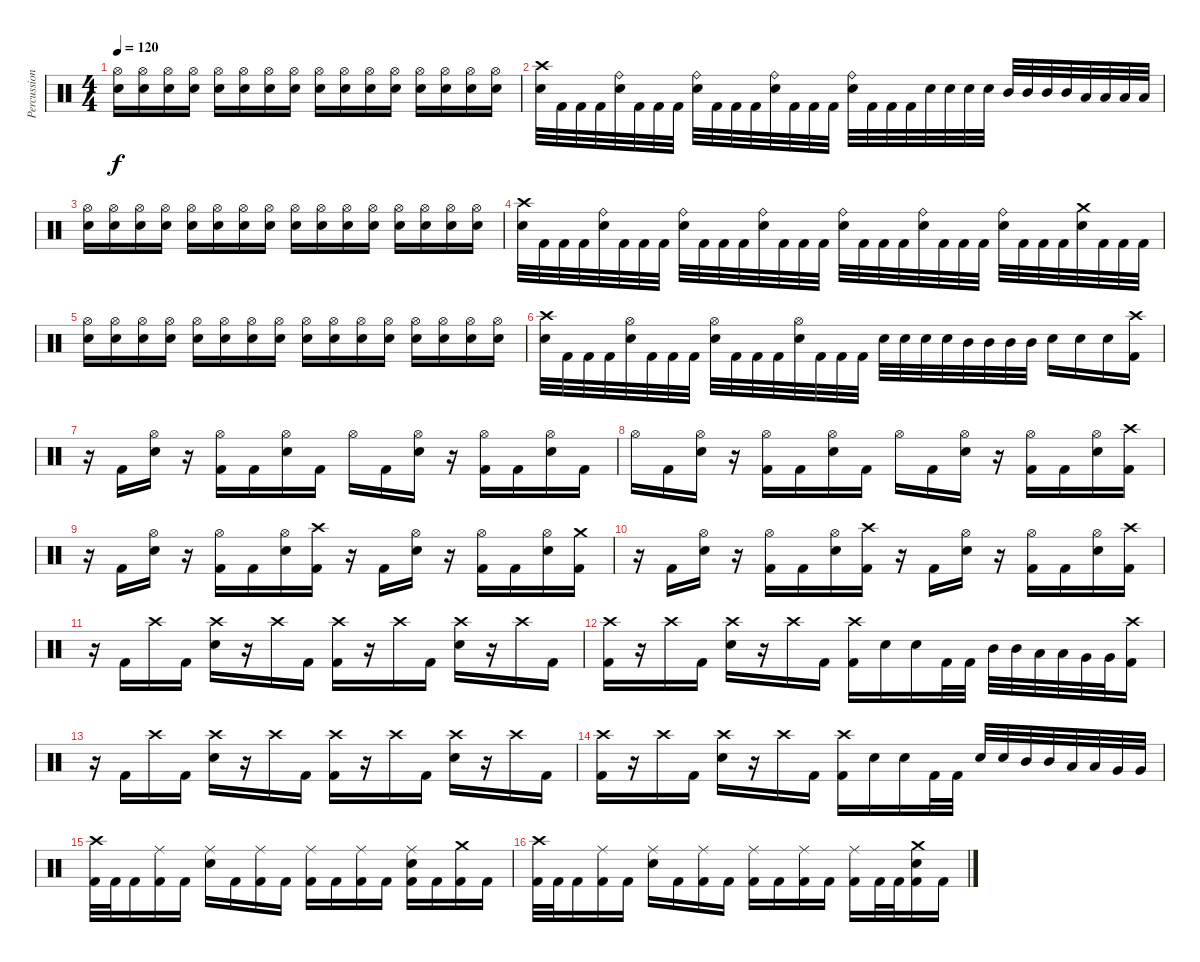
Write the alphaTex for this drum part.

\track ("Percussion" "Percussion") {instrument percussion}
\staff {score}
\articulation defaults
\ts (4 4)
\tempo 120
\clef neutral
\ks c
("Hi-Hat (open)" "Electric Snare (hit)").16{dy f} ("Hi-Hat (open)" "Electric Snare (hit)").16 ("Hi-Hat (open)" "Electric Snare (hit)").16 ("Hi-Hat (open)" "Electric Snare (hit)").16 ("Hi-Hat (open)" "Electric Snare (hit)").16 ("Hi-Hat (open)" "Electric Snare (hit)").16 ("Hi-Hat (open)" "Electric Snare (hit)").16 ("Hi-Hat (open)" "Electric Snare (hit)").16 ("Hi-Hat (open)" "Electric Snare (hit)").16 ("Hi-Hat (open)" "Electric Snare (hit)").16 ("Hi-Hat (open)" "Electric Snare (hit)").16 ("Hi-Hat (open)" "Electric Snare (hit)").16 ("Hi-Hat (open)" "Electric Snare (hit)").16 ("Hi-Hat (open)" "Electric Snare (hit)").16 ("Hi-Hat (open)" "Electric Snare (hit)").16 ("Hi-Hat (open)" "Electric Snare (hit)").16 |
("Crash high (hit)" "Electric Snare (hit)").32 "Kick (hit) 2".32 "Kick (hit) 2".32 "Kick (hit) 2".32 ("Ride (bell)" "Electric Snare (hit)").32 "Kick (hit) 2".32 "Kick (hit) 2".32 "Kick (hit) 2".32 ("Ride (bell)" "Electric Snare (hit)").32 "Kick (hit) 2".32 "Kick (hit) 2".32 "Kick (hit) 2".32 ("Ride (bell)" "Electric Snare (hit)").32 "Kick (hit) 2".32 "Kick (hit) 2".32 "Kick (hit) 2".32 ("Ride (bell)" "Electric Snare (hit)").32 "Kick (hit) 2".32 "Kick (hit) 2".32 "Kick (hit) 2".32 "Electric Snare (hit)".32 "Electric Snare (hit)".32 "Electric Snare (hit)".32 "Electric Snare (hit)".32 "Mid Tom (hit)".32 "Mid Tom (hit)".32 "Mid Tom (hit)".32 "Mid Tom (hit)".32 "Low Tom (hit)".32 "Low Tom (hit)".32 "Low Tom (hit)".32 "Low Tom (hit)".32 |
("Hi-Hat (open)" "Electric Snare (hit)").16 ("Hi-Hat (open)" "Electric Snare (hit)").16 ("Hi-Hat (open)" "Electric Snare (hit)").16 ("Hi-Hat (open)" "Electric Snare (hit)").16 ("Hi-Hat (open)" "Electric Snare (hit)").16 ("Hi-Hat (open)" "Electric Snare (hit)").16 ("Hi-Hat (open)" "Electric Snare (hit)").16 ("Hi-Hat (open)" "Electric Snare (hit)").16 ("Hi-Hat (open)" "Electric Snare (hit)").16 ("Hi-Hat (open)" "Electric Snare (hit)").16 ("Hi-Hat (open)" "Electric Snare (hit)").16 ("Hi-Hat (open)" "Electric Snare (hit)").16 ("Hi-Hat (open)" "Electric Snare (hit)").16 ("Hi-Hat (open)" "Electric Snare (hit)").16 ("Hi-Hat (open)" "Electric Snare (hit)").16 ("Hi-Hat (open)" "Electric Snare (hit)").16 |
("Crash high (hit)" "Electric Snare (hit)").32 "Kick (hit) 2".32 "Kick (hit) 2".32 "Kick (hit) 2".32 ("Ride (bell)" "Electric Snare (hit)").32 "Kick (hit) 2".32 "Kick (hit) 2".32 "Kick (hit) 2".32 ("Ride (bell)" "Electric Snare (hit)").32 "Kick (hit) 2".32 "Kick (hit) 2".32 "Kick (hit) 2".32 ("Ride (bell)" "Electric Snare (hit)").32 "Kick (hit) 2".32 "Kick (hit) 2".32 "Kick (hit) 2".32 ("Ride (bell)" "Electric Snare (hit)").32 "Kick (hit) 2".32 "Kick (hit) 2".32 "Kick (hit) 2".32 ("Ride (bell)" "Electric Snare (hit)").32 "Kick (hit) 2".32 "Kick (hit) 2".32 "Kick (hit) 2".32 ("Ride (bell)" "Electric Snare (hit)").32 "Kick (hit) 2".32 "Kick (hit) 2".32 "Kick (hit) 2".32 ("Crash medium (hit)" "Electric Snare (hit)").32 "Kick (hit) 2".32 "Kick (hit) 2".32 "Kick (hit) 2".32 |
("Hi-Hat (open)" "Electric Snare (hit)").16 ("Hi-Hat (open)" "Electric Snare (hit)").16 ("Hi-Hat (open)" "Electric Snare (hit)").16 ("Hi-Hat (open)" "Electric Snare (hit)").16 ("Hi-Hat (open)" "Electric Snare (hit)").16 ("Hi-Hat (open)" "Electric Snare (hit)").16 ("Hi-Hat (open)" "Electric Snare (hit)").16 ("Hi-Hat (open)" "Electric Snare (hit)").16 ("Hi-Hat (open)" "Electric Snare (hit)").16 ("Hi-Hat (open)" "Electric Snare (hit)").16 ("Hi-Hat (open)" "Electric Snare (hit)").16 ("Hi-Hat (open)" "Electric Snare (hit)").16 ("Hi-Hat (open)" "Electric Snare (hit)").16 ("Hi-Hat (open)" "Electric Snare (hit)").16 ("Hi-Hat (open)" "Electric Snare (hit)").16 ("Hi-Hat (open)" "Electric Snare (hit)").16 |
("Crash high (hit)" "Electric Snare (hit)").32 "Kick (hit) 2".32 "Kick (hit) 2".32 "Kick (hit) 2".32 ("Hi-Hat (open)" "Electric Snare (hit)").32 "Kick (hit) 2".32 "Kick (hit) 2".32 "Kick (hit) 2".32 ("Hi-Hat (open)" "Electric Snare (hit)").32 "Kick (hit) 2".32 "Kick (hit) 2".32 "Kick (hit) 2".32 ("Hi-Hat (open)" "Electric Snare (hit)").32 "Kick (hit) 2".32 "Kick (hit) 2".32 "Kick (hit) 2".32 "Electric Snare (hit)".32 "Electric Snare (hit)".32 "Electric Snare (hit)".32 "Electric Snare (hit)".32 "Mid Tom (hit)".32 "Mid Tom (hit)".32 "Mid Tom (hit)".32 "Mid Tom (hit)".32 "Electric Snare (hit)".16 "Electric Snare (hit)".16 "Electric Snare (hit)".16 ("Crash high (hit)" "Kick (hit) 2").16 |
r.16 "Kick (hit) 2".16 ("Hi-Hat (open)" "Electric Snare (hit)").16 r.16 ("Hi-Hat (open)" "Kick (hit) 2").16 "Kick (hit) 2".16 ("Hi-Hat (open)" "Electric Snare (hit)").16 "Kick (hit) 2".16 "Hi-Hat (open)".16 "Kick (hit) 2".16 ("Hi-Hat (open)" "Electric Snare (hit)").16 r.16 ("Hi-Hat (open)" "Kick (hit) 2").16 "Kick (hit) 2".16 ("Hi-Hat (open)" "Electric Snare (hit)").16 "Kick (hit) 2".16 |
"Hi-Hat (open)".16 "Kick (hit) 2".16 ("Hi-Hat (open)" "Electric Snare (hit)").16 r.16 ("Hi-Hat (open)" "Kick (hit) 2").16 "Kick (hit) 2".16 ("Hi-Hat (open)" "Electric Snare (hit)").16 "Kick (hit) 2".16 "Hi-Hat (open)".16 "Kick (hit) 2".16 ("Hi-Hat (open)" "Electric Snare (hit)").16 r.16 ("Hi-Hat (open)" "Kick (hit) 2").16 "Kick (hit) 2".16 ("Hi-Hat (open)" "Electric Snare (hit)").16 ("Crash high (hit)" "Kick (hit) 2").16 |
r.16 "Kick (hit) 2".16 ("Hi-Hat (open)" "Electric Snare (hit)").16 r.16 ("Hi-Hat (open)" "Kick (hit) 2").16 "Kick (hit) 2".16 ("Hi-Hat (open)" "Electric Snare (hit)").16 ("Crash high (hit)" "Kick (hit) 2").16 r.16 "Kick (hit) 2".16 ("Hi-Hat (open)" "Electric Snare (hit)").16 r.16 ("Hi-Hat (open)" "Kick (hit) 2").16 "Kick (hit) 2".16 ("Hi-Hat (open)" "Electric Snare (hit)").16 ("Crash medium (hit)" "Kick (hit) 2").16 |
r.16 "Kick (hit) 2".16 ("Hi-Hat (open)" "Electric Snare (hit)").16 r.16 ("Hi-Hat (open)" "Kick (hit) 2").16 "Kick (hit) 2".16 ("Hi-Hat (open)" "Electric Snare (hit)").16 ("Crash high (hit)" "Kick (hit) 2").16 r.16 "Kick (hit) 2".16 ("Hi-Hat (open)" "Electric Snare (hit)").16 r.16 ("Hi-Hat (open)" "Kick (hit) 2").16 "Kick (hit) 2".16 ("Hi-Hat (open)" "Electric Snare (hit)").16 ("Crash high (hit)" "Kick (hit) 2").16 |
r.16 "Kick (hit) 2".16 "Crash high (hit)".16 "Kick (hit) 2".16 ("Crash high (hit)" "Electric Snare (hit)").16 r.16 "Crash high (hit)".16 "Kick (hit) 2".16 ("Crash high (hit)" "Kick (hit) 2").16 r.16 "Crash high (hit)".16 "Kick (hit) 2".16 ("Crash high (hit)" "Electric Snare (hit)").16 r.16 "Crash high (hit)".16 "Kick (hit) 2".16 |
("Crash high (hit)" "Kick (hit) 2").16 r.16 "Crash high (hit)".16 "Kick (hit) 2".16 ("Crash high (hit)" "Electric Snare (hit)").16 r.16 "Crash high (hit)".16 "Kick (hit) 2".16 ("Crash high (hit)" "Kick (hit) 2").16 "Electric Snare (hit)".16 "Electric Snare (hit)".16 "Kick (hit) 2".32 "Kick (hit) 2".32 "Mid Tom (hit)".32 "Mid Tom (hit)".32 "Low Tom (hit)".32 "Low Tom (hit)".32 "Very Low Tom (hit)".32 "Very Low Tom (hit)".32 ("Crash high (hit)" "Kick (hit) 2").16 |
r.16 "Kick (hit) 2".16 "Crash high (hit)".16 "Kick (hit) 2".16 ("Crash high (hit)" "Electric Snare (hit)").16 r.16 "Crash high (hit)".16 "Kick (hit) 2".16 ("Crash high (hit)" "Kick (hit) 2").16 r.16 "Crash high (hit)".16 "Kick (hit) 2".16 ("Crash high (hit)" "Electric Snare (hit)").16 r.16 "Crash high (hit)".16 "Kick (hit) 2".16 |
("Crash high (hit)" "Kick (hit) 2").16 r.16 "Crash high (hit)".16 "Kick (hit) 2".16 ("Crash high (hit)" "Electric Snare (hit)").16 r.16 "Crash high (hit)".16 "Kick (hit) 2".16 ("Crash high (hit)" "Kick (hit) 2").16 "Electric Snare (hit)".16 "Electric Snare (hit)".16 "Kick (hit) 2".32 "Kick (hit) 2".32 "Electric Snare (hit)".32 "Electric Snare (hit)".32 "Mid Tom (hit)".32 "Mid Tom (hit)".32 "Low Tom (hit)".32 "Low Tom (hit)".32 "Very Low Tom (hit)".32 "Very Low Tom (hit)".32 |
("Crash high (hit)" "Kick (hit) 2").32 "Kick (hit) 2".32 "Kick (hit) 2".16 ("Ride (middle)" "Kick (hit) 2").16 "Kick (hit) 2".16 ("Ride (middle)" "Electric Snare (hit)").16 "Kick (hit) 2".16 ("Ride (middle)" "Kick (hit) 2").16 "Kick (hit) 2".16 ("Ride (middle)" "Kick (hit) 2").16 "Kick (hit) 2".16 ("Ride (middle)" "Kick (hit) 2").16 "Kick (hit) 2".16 ("Ride (middle)" "Electric Snare (hit)" "Kick (hit) 2").16 "Kick (hit) 2".16 ("Crash medium (hit)" "Kick (hit) 2").16 "Kick (hit) 2".16 |
("Crash high (hit)" "Kick (hit) 2").32 "Kick (hit) 2".32 "Kick (hit) 2".16 ("Ride (middle)" "Kick (hit) 2").16 "Kick (hit) 2".16 ("Ride (middle)" "Electric Snare (hit)").16 "Kick (hit) 2".16 ("Ride (middle)" "Kick (hit) 2").16 "Kick (hit) 2".16 ("Ride (middle)" "Kick (hit) 2").16 "Kick (hit) 2".16 ("Ride (middle)" "Kick (hit) 2").16 "Kick (hit) 2".16 ("Ride (middle)" "Kick (hit) 2").16 "Kick (hit) 2".32 "Kick (hit) 2".32 ("Crash medium (hit)" "Electric Snare (hit)" "Kick (hit) 2").16 "Kick (hit) 2".16
